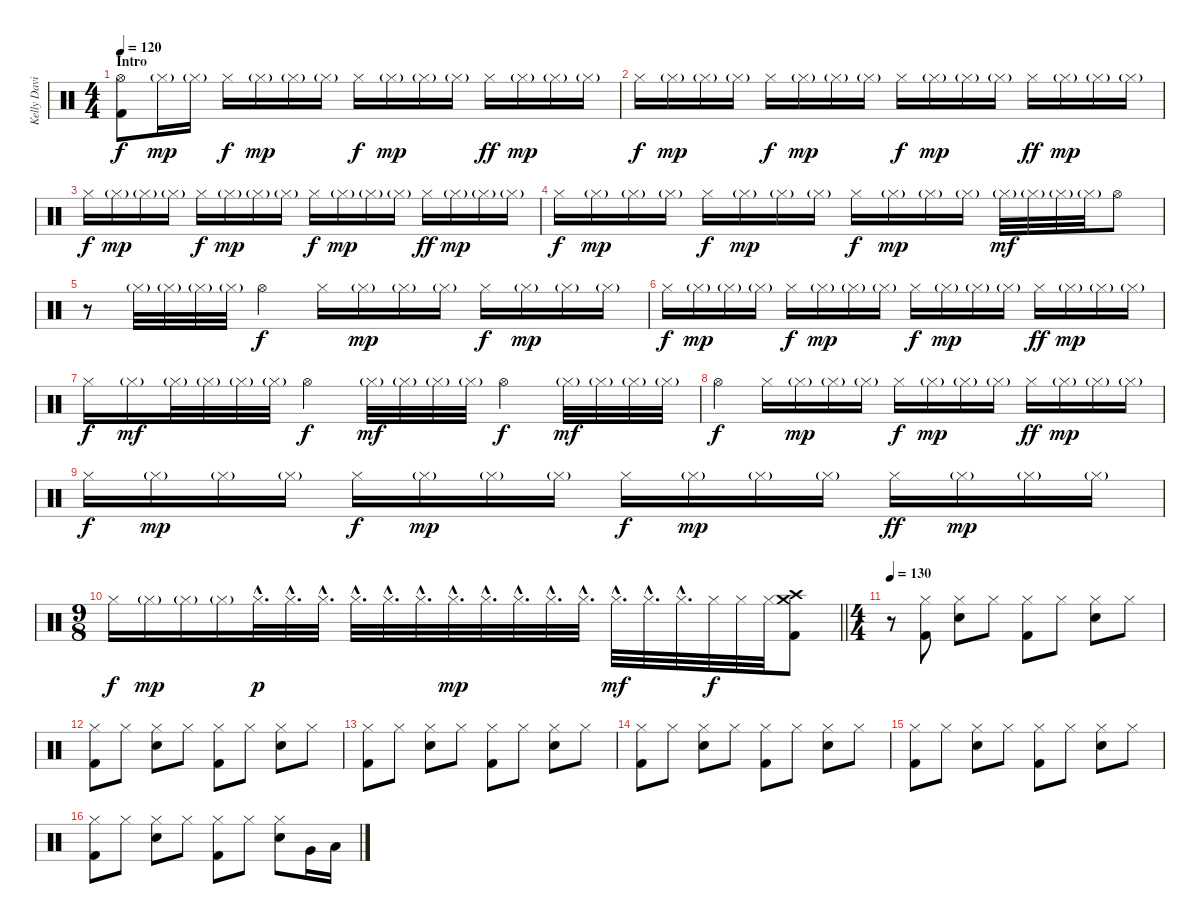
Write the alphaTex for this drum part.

\track ("Kelly David Smith" "Kelly Davi") {instrument percussion}
\staff {score}
\articulation defaults
\ts (4 4)
\section ("" "Intro")
\tempo 120
\clef neutral
\ks c
("Hi-Hat (open)" "Kick (hit) 2").8{dy f} "Hi-Hat (closed)"{g}.16{dy mp} "Hi-Hat (closed)"{g}.16 "Hi-Hat (closed)".16{dy f} "Hi-Hat (closed)"{g}.16{dy mp} "Hi-Hat (closed)"{g}.16 "Hi-Hat (closed)"{g}.16 "Hi-Hat (closed)".16{dy f} "Hi-Hat (closed)"{g}.16{dy mp} "Hi-Hat (closed)"{g}.16 "Hi-Hat (closed)"{g}.16 "Hi-Hat (closed)".16{dy ff} "Hi-Hat (closed)"{g}.16{dy mp} "Hi-Hat (closed)"{g}.16 "Hi-Hat (closed)"{g}.16 |
"Hi-Hat (closed)".16{dy f} "Hi-Hat (closed)"{g}.16{dy mp} "Hi-Hat (closed)"{g}.16 "Hi-Hat (closed)"{g}.16 "Hi-Hat (closed)".16{dy f} "Hi-Hat (closed)"{g}.16{dy mp} "Hi-Hat (closed)"{g}.16 "Hi-Hat (closed)"{g}.16 "Hi-Hat (closed)".16{dy f} "Hi-Hat (closed)"{g}.16{dy mp} "Hi-Hat (closed)"{g}.16 "Hi-Hat (closed)"{g}.16 "Hi-Hat (closed)".16{dy ff} "Hi-Hat (closed)"{g}.16{dy mp} "Hi-Hat (closed)"{g}.16 "Hi-Hat (closed)"{g}.16 |
"Hi-Hat (closed)".16{dy f} "Hi-Hat (closed)"{g}.16{dy mp} "Hi-Hat (closed)"{g}.16 "Hi-Hat (closed)"{g}.16 "Hi-Hat (closed)".16{dy f} "Hi-Hat (closed)"{g}.16{dy mp} "Hi-Hat (closed)"{g}.16 "Hi-Hat (closed)"{g}.16 "Hi-Hat (closed)".16{dy f} "Hi-Hat (closed)"{g}.16{dy mp} "Hi-Hat (closed)"{g}.16 "Hi-Hat (closed)"{g}.16 "Hi-Hat (closed)".16{dy ff} "Hi-Hat (closed)"{g}.16{dy mp} "Hi-Hat (closed)"{g}.16 "Hi-Hat (closed)"{g}.16 |
"Hi-Hat (closed)".16{dy f} "Hi-Hat (closed)"{g}.16{dy mp} "Hi-Hat (closed)"{g}.16 "Hi-Hat (closed)"{g}.16 "Hi-Hat (closed)".16{dy f} "Hi-Hat (closed)"{g}.16{dy mp} "Hi-Hat (closed)"{g}.16 "Hi-Hat (closed)"{g}.16 "Hi-Hat (closed)".16{dy f} "Hi-Hat (closed)"{g}.16{dy mp} "Hi-Hat (closed)"{g}.16 "Hi-Hat (closed)"{g}.16 "Hi-Hat (closed)"{g}.32{dy mf} "Hi-Hat (closed)"{g}.32 "Hi-Hat (closed)"{g}.32 "Hi-Hat (closed)"{g}.32 "Hi-Hat (open)".8 |
r.8 "Hi-Hat (closed)"{g}.32 "Hi-Hat (closed)"{g}.32 "Hi-Hat (closed)"{g}.32 "Hi-Hat (closed)"{g}.32 "Hi-Hat (open)".4{dy f} "Hi-Hat (closed)".16 "Hi-Hat (closed)"{g}.16{dy mp} "Hi-Hat (closed)"{g}.16 "Hi-Hat (closed)"{g}.16 "Hi-Hat (closed)".16{dy f} "Hi-Hat (closed)"{g}.16{dy mp} "Hi-Hat (closed)"{g}.16 "Hi-Hat (closed)"{g}.16 |
"Hi-Hat (closed)".16{dy f} "Hi-Hat (closed)"{g}.16{dy mp} "Hi-Hat (closed)"{g}.16 "Hi-Hat (closed)"{g}.16 "Hi-Hat (closed)".16{dy f} "Hi-Hat (closed)"{g}.16{dy mp} "Hi-Hat (closed)"{g}.16 "Hi-Hat (closed)"{g}.16 "Hi-Hat (closed)".16{dy f} "Hi-Hat (closed)"{g}.16{dy mp} "Hi-Hat (closed)"{g}.16 "Hi-Hat (closed)"{g}.16 "Hi-Hat (closed)".16{dy ff} "Hi-Hat (closed)"{g}.16{dy mp} "Hi-Hat (closed)"{g}.16 "Hi-Hat (closed)"{g}.16 |
"Hi-Hat (closed)".16{dy f} "Hi-Hat (closed)"{g}.16{dy mf} "Hi-Hat (closed)"{g}.32 "Hi-Hat (closed)"{g}.32 "Hi-Hat (closed)"{g}.32 "Hi-Hat (closed)"{g}.32 "Hi-Hat (open)".4{dy f} "Hi-Hat (closed)"{g}.32{dy mf} "Hi-Hat (closed)"{g}.32 "Hi-Hat (closed)"{g}.32 "Hi-Hat (closed)"{g}.32 "Hi-Hat (open)".4{dy f} "Hi-Hat (closed)"{g}.32{dy mf} "Hi-Hat (closed)"{g}.32 "Hi-Hat (closed)"{g}.32 "Hi-Hat (closed)"{g}.32 |
"Hi-Hat (open)".4{dy f} "Hi-Hat (closed)".16 "Hi-Hat (closed)"{g}.16{dy mp} "Hi-Hat (closed)"{g}.16 "Hi-Hat (closed)"{g}.16 "Hi-Hat (closed)".16{dy f} "Hi-Hat (closed)"{g}.16{dy mp} "Hi-Hat (closed)"{g}.16 "Hi-Hat (closed)"{g}.16 "Hi-Hat (closed)".16{dy ff} "Hi-Hat (closed)"{g}.16{dy mp} "Hi-Hat (closed)"{g}.16 "Hi-Hat (closed)"{g}.16 |
"Hi-Hat (closed)".16{dy f} "Hi-Hat (closed)"{g}.16{dy mp} "Hi-Hat (closed)"{g}.16 "Hi-Hat (closed)"{g}.16 "Hi-Hat (closed)".16{dy f} "Hi-Hat (closed)"{g}.16{dy mp} "Hi-Hat (closed)"{g}.16 "Hi-Hat (closed)"{g}.16 "Hi-Hat (closed)".16{dy f} "Hi-Hat (closed)"{g}.16{dy mp} "Hi-Hat (closed)"{g}.16 "Hi-Hat (closed)"{g}.16 "Hi-Hat (closed)".16{dy ff} "Hi-Hat (closed)"{g}.16{dy mp} "Hi-Hat (closed)"{g}.16 "Hi-Hat (closed)"{g}.16 |
\ts (9 8)
\barLineRight lightlight "Hi-Hat (closed)".16{dy f} "Hi-Hat (closed)"{g}.16{dy mp} "Hi-Hat (closed)"{g}.16 "Hi-Hat (closed)"{g}.16 "Hi-Hat (closed)"{hac}.32{d dy p} "Hi-Hat (closed)"{hac}.32{d} "Hi-Hat (closed)"{hac}.32{d} "Hi-Hat (closed)"{hac}.32{d} "Hi-Hat (closed)"{hac}.32{d} "Hi-Hat (closed)"{hac}.32{d} "Hi-Hat (closed)"{hac}.32{d dy mp} "Hi-Hat (closed)"{hac}.32{d} "Hi-Hat (closed)"{hac}.32{d} "Hi-Hat (closed)"{hac}.32{d} "Hi-Hat (closed)"{hac}.32{d} "Hi-Hat (closed)"{hac}.32{d dy mf} "Hi-Hat (closed)"{hac}.32{d} "Hi-Hat (closed)"{hac}.32{d} "Hi-Hat (closed)".32{dy f} "Hi-Hat (closed)".32 "Hi-Hat (closed)".32
("Crash high (hit)" "Crash medium (hit)" "Kick (hit) 2").8 |
\ts (4 4)
\tempo 130
r.8 ("Hi-Hat (closed)" "Kick (hit) 2").8 ("Hi-Hat (closed)" "Snare (hit) 2").8 "Hi-Hat (closed)".8 ("Hi-Hat (closed)" "Kick (hit) 2").8 "Hi-Hat (closed)".8 ("Hi-Hat (closed)" "Snare (hit) 2").8 "Hi-Hat (closed)".8 |
("Hi-Hat (closed)" "Kick (hit) 2").8 "Hi-Hat (closed)".8 ("Hi-Hat (closed)" "Snare (hit) 2").8 "Hi-Hat (closed)".8 ("Hi-Hat (closed)" "Kick (hit) 2").8 "Hi-Hat (closed)".8 ("Hi-Hat (closed)" "Snare (hit) 2").8 "Hi-Hat (closed)".8 |
("Hi-Hat (closed)" "Kick (hit) 2").8 "Hi-Hat (closed)".8 ("Hi-Hat (closed)" "Snare (hit) 2").8 "Hi-Hat (closed)".8 ("Hi-Hat (closed)" "Kick (hit) 2").8 "Hi-Hat (closed)".8 ("Hi-Hat (closed)" "Snare (hit) 2").8 "Hi-Hat (closed)".8 |
("Hi-Hat (closed)" "Kick (hit) 2").8 "Hi-Hat (closed)".8 ("Hi-Hat (closed)" "Snare (hit) 2").8 "Hi-Hat (closed)".8 ("Hi-Hat (closed)" "Kick (hit) 2").8 "Hi-Hat (closed)".8 ("Hi-Hat (closed)" "Snare (hit) 2").8 "Hi-Hat (closed)".8 |
("Hi-Hat (closed)" "Kick (hit) 2").8 "Hi-Hat (closed)".8 ("Hi-Hat (closed)" "Snare (hit) 2").8 "Hi-Hat (closed)".8 ("Hi-Hat (closed)" "Kick (hit) 2").8 "Hi-Hat (closed)".8 ("Hi-Hat (closed)" "Snare (hit) 2").8 "Hi-Hat (closed)".8 |
("Hi-Hat (closed)" "Kick (hit) 2").8 "Hi-Hat (closed)".8 ("Hi-Hat (closed)" "Snare (hit) 2").8 "Hi-Hat (closed)".8 ("Hi-Hat (closed)" "Kick (hit) 2").8 "Hi-Hat (closed)".8 ("Hi-Hat (closed)" "Snare (hit) 2").8 "Very Low Tom (hit)".16 "Low Floor Tom (hit)".16
